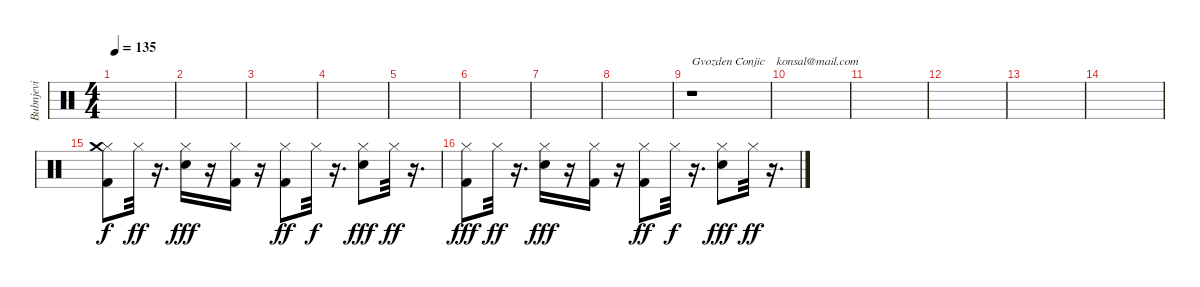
\track ("Bubnjevi" "Bubnjevi") {instrument percussion}
\staff {score}
\articulation defaults
\ts (4 4)
\tempo 135
\clef neutral
\ks c
|
|
|
|
|
|
|
|
r.1{txt "Gvozden Conjic    konsal@mail.com"} |
|
|
|
|
|
("Kick (hit) 2" "Hi-Hat (closed)" "Crash medium (hit)").8 "Hi-Hat (closed)".32{dy ff} r.16{d} ("Electric Snare (hit)" "Hi-Hat (closed)").16{dy fff} r.16 ("Kick (hit) 2" "Hi-Hat (closed)").16 r.16 ("Kick (hit) 2" "Hi-Hat (closed)").8{dy ff} "Hi-Hat (closed)".32{dy f} r.16{d} ("Electric Snare (hit)" "Hi-Hat (closed)").8{dy fff} "Hi-Hat (closed)".32{dy ff} r.16{d} |
("Kick (hit) 2" "Hi-Hat (closed)").8{dy fff} "Hi-Hat (closed)".32{dy ff} r.16{d} ("Electric Snare (hit)" "Hi-Hat (closed)").16{dy fff} r.16 ("Kick (hit) 2" "Hi-Hat (closed)").16 r.16 ("Kick (hit) 2" "Hi-Hat (closed)").8{dy ff} "Hi-Hat (closed)".32{dy f} r.16{d} ("Electric Snare (hit)" "Hi-Hat (closed)").8{dy fff} "Hi-Hat (closed)".32{dy ff} r.16{d}
